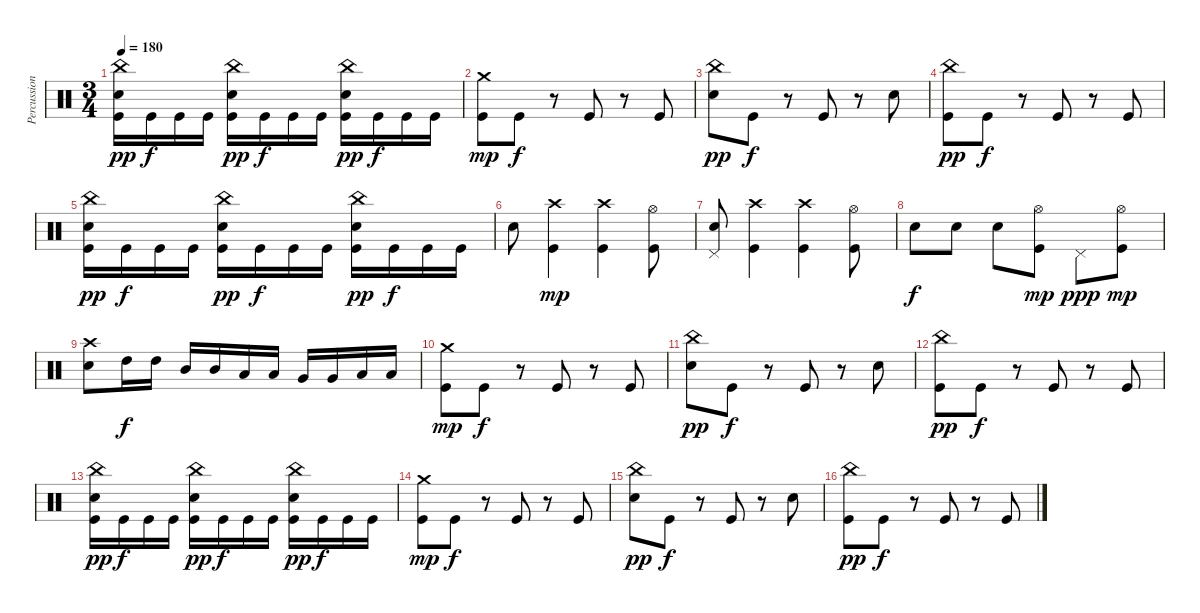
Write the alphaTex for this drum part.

\track ("Percussion" "Percussion") {instrument percussion}
\staff {score}
\articulation defaults
\ts (3 4)
\tempo 180
\clef neutral
\ks c
("China (hit)" "Electric Snare (hit)" "Kick (hit)").16{dy pp} "Kick (hit)".16{dy f} "Kick (hit)".16 "Kick (hit)".16 ("China (hit)" "Electric Snare (hit)" "Kick (hit)").16{dy pp} "Kick (hit)".16{dy f} "Kick (hit)".16 "Kick (hit)".16 ("China (hit)" "Electric Snare (hit)" "Kick (hit)").16{dy pp} "Kick (hit)".16{dy f} "Kick (hit)".16 "Kick (hit)".16 |
("Crash medium (hit)" "Kick (hit)").8{dy mp} "Kick (hit)".8{dy f} r.8 "Kick (hit)".8 r.8 "Kick (hit)".8 |
("China (hit)" "Electric Snare (hit)").8{dy pp} "Kick (hit)".8{dy f} r.8 "Kick (hit)".8 r.8 "Electric Snare (hit)".8 |
("China (hit)" "Kick (hit)").8{dy pp} "Kick (hit)".8{dy f} r.8 "Kick (hit)".8 r.8 "Kick (hit)".8 |
("China (hit)" "Electric Snare (hit)" "Kick (hit)").16{dy pp} "Kick (hit)".16{dy f} "Kick (hit)".16 "Kick (hit)".16 ("China (hit)" "Electric Snare (hit)" "Kick (hit)").16{dy pp} "Kick (hit)".16{dy f} "Kick (hit)".16 "Kick (hit)".16 ("China (hit)" "Electric Snare (hit)" "Kick (hit)").16{dy pp} "Kick (hit)".16{dy f} "Kick (hit)".16 "Kick (hit)".16 |
"Electric Snare (hit)".8 ("Crash high (hit)" "Kick (hit)").4{dy mp} ("Crash high (hit)" "Kick (hit)").4 ("Hi-Hat (open)" "Kick (hit)").8 |
("Pedal Hi-Hat (hit)" "Electric Snare (hit)").8 ("Crash high (hit)" "Kick (hit)").4 ("Crash high (hit)" "Kick (hit)").4 ("Hi-Hat (open)" "Kick (hit)").8 |
"Electric Snare (hit)".8{dy f} "Electric Snare (hit)".8 "Electric Snare (hit)".8 ("Hi-Hat (open)" "Kick (hit)").8{dy mp} "Pedal Hi-Hat (hit)".8{dy ppp} ("Hi-Hat (open)" "Kick (hit)").8{dy mp} |
("Crash high (hit)" "Electric Snare (hit)").8 "High Tom (hit)".16{dy f} "High Tom (hit)".16 "Mid Tom (hit)".16 "Mid Tom (hit)".16 "Low Tom (hit)".16 "Low Tom (hit)".16 "Very Low Tom (hit)".16 "Very Low Tom (hit)".16 "Low Floor Tom (hit)".16 "Low Floor Tom (hit)".16 |
("Crash medium (hit)" "Kick (hit)").8{dy mp} "Kick (hit)".8{dy f} r.8 "Kick (hit)".8 r.8 "Kick (hit)".8 |
("China (hit)" "Electric Snare (hit)").8{dy pp} "Kick (hit)".8{dy f} r.8 "Kick (hit)".8 r.8 "Electric Snare (hit)".8 |
("China (hit)" "Kick (hit)").8{dy pp} "Kick (hit)".8{dy f} r.8 "Kick (hit)".8 r.8 "Kick (hit)".8 |
("China (hit)" "Electric Snare (hit)" "Kick (hit)").16{dy pp} "Kick (hit)".16{dy f} "Kick (hit)".16 "Kick (hit)".16 ("China (hit)" "Electric Snare (hit)" "Kick (hit)").16{dy pp} "Kick (hit)".16{dy f} "Kick (hit)".16 "Kick (hit)".16 ("China (hit)" "Electric Snare (hit)" "Kick (hit)").16{dy pp} "Kick (hit)".16{dy f} "Kick (hit)".16 "Kick (hit)".16 |
("Crash medium (hit)" "Kick (hit)").8{dy mp} "Kick (hit)".8{dy f} r.8 "Kick (hit)".8 r.8 "Kick (hit)".8 |
("China (hit)" "Electric Snare (hit)").8{dy pp} "Kick (hit)".8{dy f} r.8 "Kick (hit)".8 r.8 "Electric Snare (hit)".8 |
("China (hit)" "Kick (hit)").8{dy pp} "Kick (hit)".8{dy f} r.8 "Kick (hit)".8 r.8 "Kick (hit)".8
